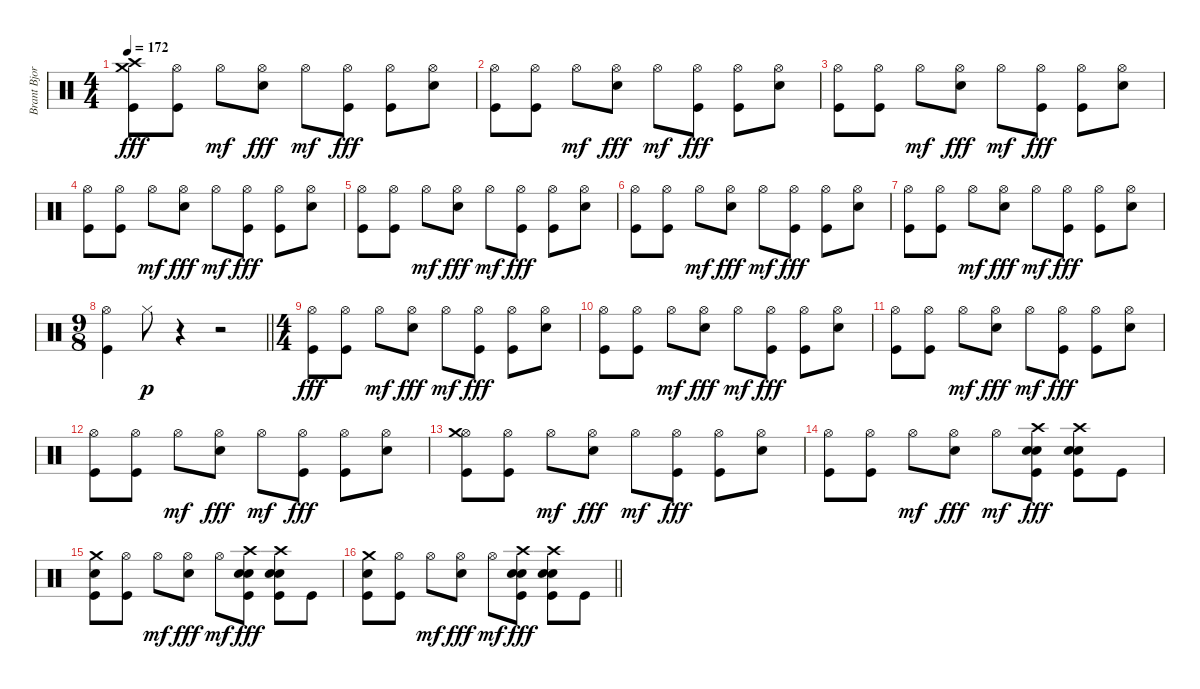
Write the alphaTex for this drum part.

\track ("Brant Bjork" "Brant Bjor") {instrument percussion}
\staff {score}
\articulation defaults
\ts (4 4)
\tempo 172
\clef neutral
\ks c
("Crash high (hit)" "Crash medium (hit)" "Kick (hit)").8{dy fff} ("Hi-Hat (open)" "Kick (hit)").8 "Hi-Hat (open)".8{dy mf} ("Hi-Hat (open)" "Snare (hit) 2").8{dy fff} "Hi-Hat (open)".8{dy mf} ("Hi-Hat (open)" "Kick (hit)").8{dy fff} ("Hi-Hat (open)" "Kick (hit)").8 ("Hi-Hat (open)" "Snare (hit) 2").8 |
("Hi-Hat (open)" "Kick (hit)").8 ("Hi-Hat (open)" "Kick (hit)").8 "Hi-Hat (open)".8{dy mf} ("Hi-Hat (open)" "Snare (hit) 2").8{dy fff} "Hi-Hat (open)".8{dy mf} ("Hi-Hat (open)" "Kick (hit)").8{dy fff} ("Hi-Hat (open)" "Kick (hit)").8 ("Hi-Hat (open)" "Snare (hit) 2").8 |
("Hi-Hat (open)" "Kick (hit)").8 ("Hi-Hat (open)" "Kick (hit)").8 "Hi-Hat (open)".8{dy mf} ("Hi-Hat (open)" "Snare (hit) 2").8{dy fff} "Hi-Hat (open)".8{dy mf} ("Hi-Hat (open)" "Kick (hit)").8{dy fff} ("Hi-Hat (open)" "Kick (hit)").8 ("Hi-Hat (open)" "Snare (hit) 2").8 |
("Hi-Hat (open)" "Kick (hit)").8 ("Hi-Hat (open)" "Kick (hit)").8 "Hi-Hat (open)".8{dy mf} ("Hi-Hat (open)" "Snare (hit) 2").8{dy fff} "Hi-Hat (open)".8{dy mf} ("Hi-Hat (open)" "Kick (hit)").8{dy fff} ("Hi-Hat (open)" "Kick (hit)").8 ("Hi-Hat (open)" "Snare (hit) 2").8 |
("Hi-Hat (open)" "Kick (hit)").8 ("Hi-Hat (open)" "Kick (hit)").8 "Hi-Hat (open)".8{dy mf} ("Hi-Hat (open)" "Snare (hit) 2").8{dy fff} "Hi-Hat (open)".8{dy mf} ("Hi-Hat (open)" "Kick (hit)").8{dy fff} ("Hi-Hat (open)" "Kick (hit)").8 ("Hi-Hat (open)" "Snare (hit) 2").8 |
("Hi-Hat (open)" "Kick (hit)").8 ("Hi-Hat (open)" "Kick (hit)").8 "Hi-Hat (open)".8{dy mf} ("Hi-Hat (open)" "Snare (hit) 2").8{dy fff} "Hi-Hat (open)".8{dy mf} ("Hi-Hat (open)" "Kick (hit)").8{dy fff} ("Hi-Hat (open)" "Kick (hit)").8 ("Hi-Hat (open)" "Snare (hit) 2").8 |
("Hi-Hat (open)" "Kick (hit)").8 ("Hi-Hat (open)" "Kick (hit)").8 "Hi-Hat (open)".8{dy mf} ("Hi-Hat (open)" "Snare (hit) 2").8{dy fff} "Hi-Hat (open)".8{dy mf} ("Hi-Hat (open)" "Kick (hit)").8{dy fff} ("Hi-Hat (open)" "Kick (hit)").8 ("Hi-Hat (open)" "Snare (hit) 2").8 |
\ts (9 8)
\barLineRight lightlight
("Hi-Hat (open)" "Kick (hit)").4 "Hi-Hat (closed)".8{dy p} r.4 r.2 |
\ts (4 4)
("Hi-Hat (open)" "Kick (hit)").8{dy fff} ("Hi-Hat (open)" "Kick (hit)").8 "Hi-Hat (open)".8{dy mf} ("Hi-Hat (open)" "Snare (hit) 2").8{dy fff} "Hi-Hat (open)".8{dy mf} ("Hi-Hat (open)" "Kick (hit)").8{dy fff} ("Hi-Hat (open)" "Kick (hit)").8 ("Hi-Hat (open)" "Snare (hit) 2").8 |
("Hi-Hat (open)" "Kick (hit)").8 ("Hi-Hat (open)" "Kick (hit)").8 "Hi-Hat (open)".8{dy mf} ("Hi-Hat (open)" "Snare (hit) 2").8{dy fff} "Hi-Hat (open)".8{dy mf} ("Hi-Hat (open)" "Kick (hit)").8{dy fff} ("Hi-Hat (open)" "Kick (hit)").8 ("Hi-Hat (open)" "Snare (hit) 2").8 |
("Hi-Hat (open)" "Kick (hit)").8 ("Hi-Hat (open)" "Kick (hit)").8 "Hi-Hat (open)".8{dy mf} ("Hi-Hat (open)" "Snare (hit) 2").8{dy fff} "Hi-Hat (open)".8{dy mf} ("Hi-Hat (open)" "Kick (hit)").8{dy fff} ("Hi-Hat (open)" "Kick (hit)").8 ("Hi-Hat (open)" "Snare (hit) 2").8 |
("Hi-Hat (open)" "Kick (hit)").8 ("Hi-Hat (open)" "Kick (hit)").8 "Hi-Hat (open)".8{dy mf} ("Hi-Hat (open)" "Snare (hit) 2").8{dy fff} "Hi-Hat (open)".8{dy mf} ("Hi-Hat (open)" "Kick (hit)").8{dy fff} ("Hi-Hat (open)" "Kick (hit)").8 ("Hi-Hat (open)" "Snare (hit) 2").8 |
("Hi-Hat (open)" "Crash medium (hit)" "Kick (hit)").8 ("Hi-Hat (open)" "Kick (hit)").8 "Hi-Hat (open)".8{dy mf} ("Hi-Hat (open)" "Snare (hit) 2").8{dy fff} "Hi-Hat (open)".8{dy mf} ("Hi-Hat (open)" "Kick (hit)").8{dy fff} ("Hi-Hat (open)" "Kick (hit)").8 ("Hi-Hat (open)" "Snare (hit) 2").8 |
("Hi-Hat (open)" "Kick (hit)").8 ("Hi-Hat (open)" "Kick (hit)").8 "Hi-Hat (open)".8{dy mf} ("Hi-Hat (open)" "Snare (hit) 2").8{dy fff} "Hi-Hat (open)".8{dy mf} ("Crash high (hit)" "Snare (hit) 2" "Snare (hit) 2" "Kick (hit)").8{dy fff} ("Crash high (hit)" "Snare (hit) 2" "Snare (hit) 2" "Kick (hit)").8 "Kick (hit)".8 |
("Crash medium (hit)" "Snare (hit) 2" "Kick (hit)").8 ("Hi-Hat (open)" "Kick (hit)").8 "Hi-Hat (open)".8{dy mf} ("Hi-Hat (open)" "Snare (hit) 2").8{dy fff} "Hi-Hat (open)".8{dy mf} ("Crash high (hit)" "Snare (hit) 2" "Snare (hit) 2" "Kick (hit)").8{dy fff} ("Crash high (hit)" "Snare (hit) 2" "Snare (hit) 2" "Kick (hit)").8 "Kick (hit)".8 |
\barLineRight lightlight
("Crash medium (hit)" "Snare (hit) 2" "Kick (hit)").8 ("Hi-Hat (open)" "Kick (hit)").8 "Hi-Hat (open)".8{dy mf} ("Hi-Hat (open)" "Snare (hit) 2").8{dy fff} "Hi-Hat (open)".8{dy mf} ("Crash high (hit)" "Snare (hit) 2" "Snare (hit) 2" "Kick (hit)").8{dy fff} ("Crash high (hit)" "Snare (hit) 2" "Snare (hit) 2" "Kick (hit)").8 "Kick (hit)".8
